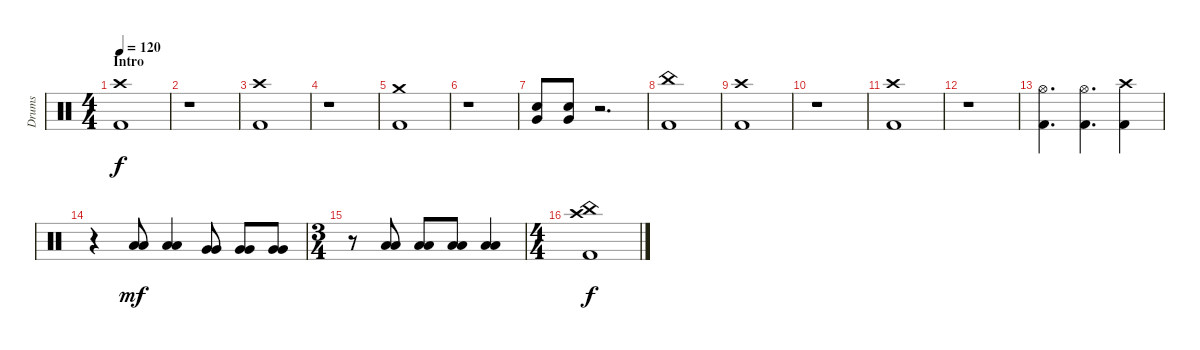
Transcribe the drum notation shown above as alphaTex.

\track ("Drums" "Drums") {instrument percussion}
\staff {score}
\articulation defaults
\ts (4 4)
\section ("" "Intro")
\tempo 120
\clef neutral
\ks c
("Crash high (hit)" "Kick (hit) 2").1{dy f} |
r.1 |
("Crash high (hit)" "Kick (hit) 2").1 |
r.1 |
("Crash medium (hit)" "Kick (hit) 2").1 |
r.1 |
("Very Low Tom (hit)" "Snare (hit) 2").8 ("Very Low Tom (hit)" "Snare (hit) 2").8 r.2{d} |
("China (hit)" "Kick (hit) 2").1 |
("Crash high (hit)" "Kick (hit) 2").1 |
r.1 |
("Crash high (hit)" "Kick (hit) 2").1 |
r.1 |
("Hi-Hat (open)" "Kick (hit) 2").4{d} ("Hi-Hat (open)" "Kick (hit) 2").4{d} ("Crash high (hit)" "Kick (hit) 2").4 |
r.4 ("Low Tom (hit)" "Low Tom (hit)").8{bd 30 dy mf} ("Low Tom (hit)" "Low Tom (hit)").4{bd 30} ("Very Low Tom (hit)" "Very Low Tom (hit)").8{bd 30} ("Very Low Tom (hit)" "Very Low Tom (hit)").8{bd 30} ("Very Low Tom (hit)" "Very Low Tom (hit)").8{bd 30} |
\ts (3 4)
r.8 ("Low Floor Tom (hit)" "Low Floor Tom (hit)").8{bd 30} ("Low Floor Tom (hit)" "Low Floor Tom (hit)").8{bd 30} ("Low Floor Tom (hit)" "Low Floor Tom (hit)").8{bd 30} ("Low Floor Tom (hit)" "Low Floor Tom (hit)").4{bd 30} |
\ts (4 4)
("China (hit)" "Crash high (hit)" "Kick (hit) 2").1{dy f}
